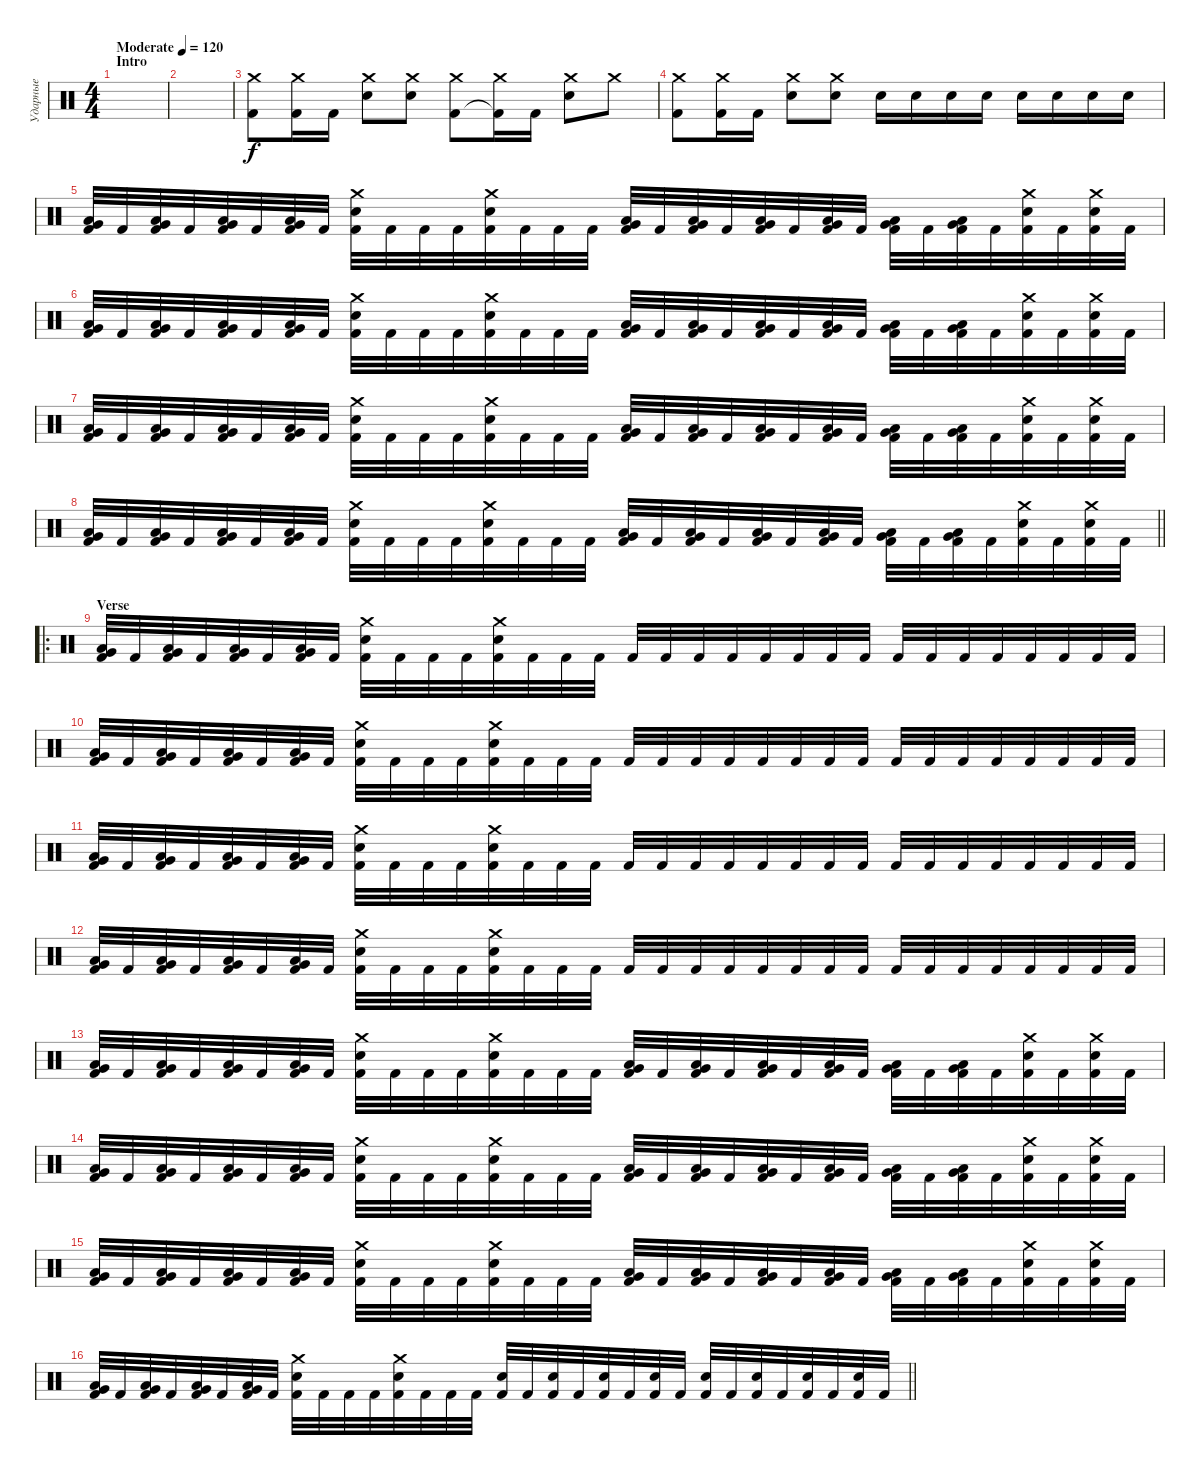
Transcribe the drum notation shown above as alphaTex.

\track ("Ударные" "Ударные") {instrument percussion}
\staff {score}
\articulation defaults
\ts (4 4)
\section ("" "Intro")
\tempo (120 "Moderate")
\clef neutral
\ks c
|
|
("Crash medium (hit)" "Kick (hit) 2").8 ("Crash medium (hit)" "Kick (hit) 2").16 "Kick (hit) 2".16 ("Crash medium (hit)" "Electric Snare (hit)").8 ("Crash medium (hit)" "Electric Snare (hit)").8 ("Crash medium (hit)" "Kick (hit) 2").8 ("Crash medium (hit)" "Kick (hit) 2"{t}).16 "Kick (hit) 2".16 ("Crash medium (hit)" "Electric Snare (hit)").8 "Crash medium (hit)".8 |
("Crash medium (hit)" "Kick (hit) 2").8 ("Crash medium (hit)" "Kick (hit) 2").16 "Kick (hit) 2".16 ("Crash medium (hit)" "Electric Snare (hit)").8 ("Crash medium (hit)" "Electric Snare (hit)").8 "Electric Snare (hit)".16 "Electric Snare (hit)".16 "Electric Snare (hit)".16 "Electric Snare (hit)".16 "Electric Snare (hit)".16 "Electric Snare (hit)".16 "Electric Snare (hit)".16 "Electric Snare (hit)".16 |
("Low Tom (hit)" "Very Low Tom (hit)" "Kick (hit) 2").32 "Kick (hit) 2".32 ("Low Tom (hit)" "Very Low Tom (hit)" "Kick (hit) 2").32 "Kick (hit) 2".32 ("Low Tom (hit)" "Very Low Tom (hit)" "Kick (hit) 2").32 "Kick (hit) 2".32 ("Low Tom (hit)" "Very Low Tom (hit)" "Kick (hit) 2").32 "Kick (hit) 2".32 ("Crash medium (hit)" "Electric Snare (hit)" "Kick (hit) 2").32 "Kick (hit) 2".32 "Kick (hit) 2".32 "Kick (hit) 2".32 ("Crash medium (hit)" "Electric Snare (hit)" "Kick (hit) 2").32 "Kick (hit) 2".32 "Kick (hit) 2".32 "Kick (hit) 2".32 ("Low Tom (hit)" "Very Low Tom (hit)" "Kick (hit) 2").32 "Kick (hit) 2".32 ("Low Tom (hit)" "Very Low Tom (hit)" "Kick (hit) 2").32 "Kick (hit) 2".32 ("Low Tom (hit)" "Very Low Tom (hit)" "Kick (hit) 2").32 "Kick (hit) 2".32 ("Low Tom (hit)" "Very Low Tom (hit)" "Kick (hit) 2").32 "Kick (hit) 2".32 ("Low Tom (hit)" "Very Low Tom (hit)" "Kick (hit) 2").32 "Kick (hit) 2".32 ("Low Tom (hit)" "Very Low Tom (hit)" "Kick (hit) 2").32 "Kick (hit) 2".32 ("Crash medium (hit)" "Electric Snare (hit)" "Kick (hit) 2").32 "Kick (hit) 2".32 ("Crash medium (hit)" "Electric Snare (hit)" "Kick (hit) 2").32 "Kick (hit) 2".32 |
("Low Tom (hit)" "Very Low Tom (hit)" "Kick (hit) 2").32 "Kick (hit) 2".32 ("Low Tom (hit)" "Very Low Tom (hit)" "Kick (hit) 2").32 "Kick (hit) 2".32 ("Low Tom (hit)" "Very Low Tom (hit)" "Kick (hit) 2").32 "Kick (hit) 2".32 ("Low Tom (hit)" "Very Low Tom (hit)" "Kick (hit) 2").32 "Kick (hit) 2".32 ("Crash medium (hit)" "Electric Snare (hit)" "Kick (hit) 2").32 "Kick (hit) 2".32 "Kick (hit) 2".32 "Kick (hit) 2".32 ("Crash medium (hit)" "Electric Snare (hit)" "Kick (hit) 2").32 "Kick (hit) 2".32 "Kick (hit) 2".32 "Kick (hit) 2".32 ("Low Tom (hit)" "Very Low Tom (hit)" "Kick (hit) 2").32 "Kick (hit) 2".32 ("Low Tom (hit)" "Very Low Tom (hit)" "Kick (hit) 2").32 "Kick (hit) 2".32 ("Low Tom (hit)" "Very Low Tom (hit)" "Kick (hit) 2").32 "Kick (hit) 2".32 ("Low Tom (hit)" "Very Low Tom (hit)" "Kick (hit) 2").32 "Kick (hit) 2".32 ("Low Tom (hit)" "Very Low Tom (hit)" "Kick (hit) 2").32 "Kick (hit) 2".32 ("Low Tom (hit)" "Very Low Tom (hit)" "Kick (hit) 2").32 "Kick (hit) 2".32 ("Crash medium (hit)" "Electric Snare (hit)" "Kick (hit) 2").32 "Kick (hit) 2".32 ("Crash medium (hit)" "Electric Snare (hit)" "Kick (hit) 2").32 "Kick (hit) 2".32 |
("Low Tom (hit)" "Very Low Tom (hit)" "Kick (hit) 2").32 "Kick (hit) 2".32 ("Low Tom (hit)" "Very Low Tom (hit)" "Kick (hit) 2").32 "Kick (hit) 2".32 ("Low Tom (hit)" "Very Low Tom (hit)" "Kick (hit) 2").32 "Kick (hit) 2".32 ("Low Tom (hit)" "Very Low Tom (hit)" "Kick (hit) 2").32 "Kick (hit) 2".32 ("Crash medium (hit)" "Electric Snare (hit)" "Kick (hit) 2").32 "Kick (hit) 2".32 "Kick (hit) 2".32 "Kick (hit) 2".32 ("Crash medium (hit)" "Electric Snare (hit)" "Kick (hit) 2").32 "Kick (hit) 2".32 "Kick (hit) 2".32 "Kick (hit) 2".32 ("Low Tom (hit)" "Very Low Tom (hit)" "Kick (hit) 2").32 "Kick (hit) 2".32 ("Low Tom (hit)" "Very Low Tom (hit)" "Kick (hit) 2").32 "Kick (hit) 2".32 ("Low Tom (hit)" "Very Low Tom (hit)" "Kick (hit) 2").32 "Kick (hit) 2".32 ("Low Tom (hit)" "Very Low Tom (hit)" "Kick (hit) 2").32 "Kick (hit) 2".32 ("Low Tom (hit)" "Very Low Tom (hit)" "Kick (hit) 2").32 "Kick (hit) 2".32 ("Low Tom (hit)" "Very Low Tom (hit)" "Kick (hit) 2").32 "Kick (hit) 2".32 ("Crash medium (hit)" "Electric Snare (hit)" "Kick (hit) 2").32 "Kick (hit) 2".32 ("Crash medium (hit)" "Electric Snare (hit)" "Kick (hit) 2").32 "Kick (hit) 2".32 |
\barLineRight lightlight
("Low Tom (hit)" "Very Low Tom (hit)" "Kick (hit) 2").32 "Kick (hit) 2".32 ("Low Tom (hit)" "Very Low Tom (hit)" "Kick (hit) 2").32 "Kick (hit) 2".32 ("Low Tom (hit)" "Very Low Tom (hit)" "Kick (hit) 2").32 "Kick (hit) 2".32 ("Low Tom (hit)" "Very Low Tom (hit)" "Kick (hit) 2").32 "Kick (hit) 2".32 ("Crash medium (hit)" "Electric Snare (hit)" "Kick (hit) 2").32 "Kick (hit) 2".32 "Kick (hit) 2".32 "Kick (hit) 2".32 ("Crash medium (hit)" "Electric Snare (hit)" "Kick (hit) 2").32 "Kick (hit) 2".32 "Kick (hit) 2".32 "Kick (hit) 2".32 ("Low Tom (hit)" "Very Low Tom (hit)" "Kick (hit) 2").32 "Kick (hit) 2".32 ("Low Tom (hit)" "Very Low Tom (hit)" "Kick (hit) 2").32 "Kick (hit) 2".32 ("Low Tom (hit)" "Very Low Tom (hit)" "Kick (hit) 2").32 "Kick (hit) 2".32 ("Low Tom (hit)" "Very Low Tom (hit)" "Kick (hit) 2").32 "Kick (hit) 2".32 ("Low Tom (hit)" "Very Low Tom (hit)" "Kick (hit) 2").32 "Kick (hit) 2".32 ("Low Tom (hit)" "Very Low Tom (hit)" "Kick (hit) 2").32 "Kick (hit) 2".32 ("Crash medium (hit)" "Electric Snare (hit)" "Kick (hit) 2").32 "Kick (hit) 2".32 ("Crash medium (hit)" "Electric Snare (hit)" "Kick (hit) 2").32 "Kick (hit) 2".32 |
\ro
\section ("" "Verse")
("Low Tom (hit)" "Very Low Tom (hit)" "Kick (hit) 2").32 "Kick (hit) 2".32 ("Low Tom (hit)" "Very Low Tom (hit)" "Kick (hit) 2").32 "Kick (hit) 2".32 ("Low Tom (hit)" "Very Low Tom (hit)" "Kick (hit) 2").32 "Kick (hit) 2".32 ("Low Tom (hit)" "Very Low Tom (hit)" "Kick (hit) 2").32 "Kick (hit) 2".32 ("Crash medium (hit)" "Electric Snare (hit)" "Kick (hit) 2").32 "Kick (hit) 2".32 "Kick (hit) 2".32 "Kick (hit) 2".32 ("Crash medium (hit)" "Electric Snare (hit)" "Kick (hit) 2").32 "Kick (hit) 2".32 "Kick (hit) 2".32 "Kick (hit) 2".32 "Kick (hit) 2".32 "Kick (hit) 2".32 "Kick (hit) 2".32 "Kick (hit) 2".32 "Kick (hit) 2".32 "Kick (hit) 2".32 "Kick (hit) 2".32 "Kick (hit) 2".32 "Kick (hit) 2".32 "Kick (hit) 2".32 "Kick (hit) 2".32 "Kick (hit) 2".32 "Kick (hit) 2".32 "Kick (hit) 2".32 "Kick (hit) 2".32 "Kick (hit) 2".32 |
("Low Tom (hit)" "Very Low Tom (hit)" "Kick (hit) 2").32 "Kick (hit) 2".32 ("Low Tom (hit)" "Very Low Tom (hit)" "Kick (hit) 2").32 "Kick (hit) 2".32 ("Low Tom (hit)" "Very Low Tom (hit)" "Kick (hit) 2").32 "Kick (hit) 2".32 ("Low Tom (hit)" "Very Low Tom (hit)" "Kick (hit) 2").32 "Kick (hit) 2".32 ("Crash medium (hit)" "Electric Snare (hit)" "Kick (hit) 2").32 "Kick (hit) 2".32 "Kick (hit) 2".32 "Kick (hit) 2".32 ("Crash medium (hit)" "Electric Snare (hit)" "Kick (hit) 2").32 "Kick (hit) 2".32 "Kick (hit) 2".32 "Kick (hit) 2".32 "Kick (hit) 2".32 "Kick (hit) 2".32 "Kick (hit) 2".32 "Kick (hit) 2".32 "Kick (hit) 2".32 "Kick (hit) 2".32 "Kick (hit) 2".32 "Kick (hit) 2".32 "Kick (hit) 2".32 "Kick (hit) 2".32 "Kick (hit) 2".32 "Kick (hit) 2".32 "Kick (hit) 2".32 "Kick (hit) 2".32 "Kick (hit) 2".32 "Kick (hit) 2".32 |
("Low Tom (hit)" "Very Low Tom (hit)" "Kick (hit) 2").32 "Kick (hit) 2".32 ("Low Tom (hit)" "Very Low Tom (hit)" "Kick (hit) 2").32 "Kick (hit) 2".32 ("Low Tom (hit)" "Very Low Tom (hit)" "Kick (hit) 2").32 "Kick (hit) 2".32 ("Low Tom (hit)" "Very Low Tom (hit)" "Kick (hit) 2").32 "Kick (hit) 2".32 ("Crash medium (hit)" "Electric Snare (hit)" "Kick (hit) 2").32 "Kick (hit) 2".32 "Kick (hit) 2".32 "Kick (hit) 2".32 ("Crash medium (hit)" "Electric Snare (hit)" "Kick (hit) 2").32 "Kick (hit) 2".32 "Kick (hit) 2".32 "Kick (hit) 2".32 "Kick (hit) 2".32 "Kick (hit) 2".32 "Kick (hit) 2".32 "Kick (hit) 2".32 "Kick (hit) 2".32 "Kick (hit) 2".32 "Kick (hit) 2".32 "Kick (hit) 2".32 "Kick (hit) 2".32 "Kick (hit) 2".32 "Kick (hit) 2".32 "Kick (hit) 2".32 "Kick (hit) 2".32 "Kick (hit) 2".32 "Kick (hit) 2".32 "Kick (hit) 2".32 |
("Low Tom (hit)" "Very Low Tom (hit)" "Kick (hit) 2").32 "Kick (hit) 2".32 ("Low Tom (hit)" "Very Low Tom (hit)" "Kick (hit) 2").32 "Kick (hit) 2".32 ("Low Tom (hit)" "Very Low Tom (hit)" "Kick (hit) 2").32 "Kick (hit) 2".32 ("Low Tom (hit)" "Very Low Tom (hit)" "Kick (hit) 2").32 "Kick (hit) 2".32 ("Crash medium (hit)" "Electric Snare (hit)" "Kick (hit) 2").32 "Kick (hit) 2".32 "Kick (hit) 2".32 "Kick (hit) 2".32 ("Crash medium (hit)" "Electric Snare (hit)" "Kick (hit) 2").32 "Kick (hit) 2".32 "Kick (hit) 2".32 "Kick (hit) 2".32 "Kick (hit) 2".32 "Kick (hit) 2".32 "Kick (hit) 2".32 "Kick (hit) 2".32 "Kick (hit) 2".32 "Kick (hit) 2".32 "Kick (hit) 2".32 "Kick (hit) 2".32 "Kick (hit) 2".32 "Kick (hit) 2".32 "Kick (hit) 2".32 "Kick (hit) 2".32 "Kick (hit) 2".32 "Kick (hit) 2".32 "Kick (hit) 2".32 "Kick (hit) 2".32 |
("Low Tom (hit)" "Very Low Tom (hit)" "Kick (hit) 2").32 "Kick (hit) 2".32 ("Low Tom (hit)" "Very Low Tom (hit)" "Kick (hit) 2").32 "Kick (hit) 2".32 ("Low Tom (hit)" "Very Low Tom (hit)" "Kick (hit) 2").32 "Kick (hit) 2".32 ("Low Tom (hit)" "Very Low Tom (hit)" "Kick (hit) 2").32 "Kick (hit) 2".32 ("Crash medium (hit)" "Electric Snare (hit)" "Kick (hit) 2").32 "Kick (hit) 2".32 "Kick (hit) 2".32 "Kick (hit) 2".32 ("Crash medium (hit)" "Electric Snare (hit)" "Kick (hit) 2").32 "Kick (hit) 2".32 "Kick (hit) 2".32 "Kick (hit) 2".32 ("Low Tom (hit)" "Very Low Tom (hit)" "Kick (hit) 2").32 "Kick (hit) 2".32 ("Low Tom (hit)" "Very Low Tom (hit)" "Kick (hit) 2").32 "Kick (hit) 2".32 ("Low Tom (hit)" "Very Low Tom (hit)" "Kick (hit) 2").32 "Kick (hit) 2".32 ("Low Tom (hit)" "Very Low Tom (hit)" "Kick (hit) 2").32 "Kick (hit) 2".32 ("Low Tom (hit)" "Very Low Tom (hit)" "Kick (hit) 2").32 "Kick (hit) 2".32 ("Low Tom (hit)" "Very Low Tom (hit)" "Kick (hit) 2").32 "Kick (hit) 2".32 ("Crash medium (hit)" "Electric Snare (hit)" "Kick (hit) 2").32 "Kick (hit) 2".32 ("Crash medium (hit)" "Electric Snare (hit)" "Kick (hit) 2").32 "Kick (hit) 2".32 |
("Low Tom (hit)" "Very Low Tom (hit)" "Kick (hit) 2").32 "Kick (hit) 2".32 ("Low Tom (hit)" "Very Low Tom (hit)" "Kick (hit) 2").32 "Kick (hit) 2".32 ("Low Tom (hit)" "Very Low Tom (hit)" "Kick (hit) 2").32 "Kick (hit) 2".32 ("Low Tom (hit)" "Very Low Tom (hit)" "Kick (hit) 2").32 "Kick (hit) 2".32 ("Crash medium (hit)" "Electric Snare (hit)" "Kick (hit) 2").32 "Kick (hit) 2".32 "Kick (hit) 2".32 "Kick (hit) 2".32 ("Crash medium (hit)" "Electric Snare (hit)" "Kick (hit) 2").32 "Kick (hit) 2".32 "Kick (hit) 2".32 "Kick (hit) 2".32 ("Low Tom (hit)" "Very Low Tom (hit)" "Kick (hit) 2").32 "Kick (hit) 2".32 ("Low Tom (hit)" "Very Low Tom (hit)" "Kick (hit) 2").32 "Kick (hit) 2".32 ("Low Tom (hit)" "Very Low Tom (hit)" "Kick (hit) 2").32 "Kick (hit) 2".32 ("Low Tom (hit)" "Very Low Tom (hit)" "Kick (hit) 2").32 "Kick (hit) 2".32 ("Low Tom (hit)" "Very Low Tom (hit)" "Kick (hit) 2").32 "Kick (hit) 2".32 ("Low Tom (hit)" "Very Low Tom (hit)" "Kick (hit) 2").32 "Kick (hit) 2".32 ("Crash medium (hit)" "Electric Snare (hit)" "Kick (hit) 2").32 "Kick (hit) 2".32 ("Crash medium (hit)" "Electric Snare (hit)" "Kick (hit) 2").32 "Kick (hit) 2".32 |
("Low Tom (hit)" "Very Low Tom (hit)" "Kick (hit) 2").32 "Kick (hit) 2".32 ("Low Tom (hit)" "Very Low Tom (hit)" "Kick (hit) 2").32 "Kick (hit) 2".32 ("Low Tom (hit)" "Very Low Tom (hit)" "Kick (hit) 2").32 "Kick (hit) 2".32 ("Low Tom (hit)" "Very Low Tom (hit)" "Kick (hit) 2").32 "Kick (hit) 2".32 ("Crash medium (hit)" "Electric Snare (hit)" "Kick (hit) 2").32 "Kick (hit) 2".32 "Kick (hit) 2".32 "Kick (hit) 2".32 ("Crash medium (hit)" "Electric Snare (hit)" "Kick (hit) 2").32 "Kick (hit) 2".32 "Kick (hit) 2".32 "Kick (hit) 2".32 ("Low Tom (hit)" "Very Low Tom (hit)" "Kick (hit) 2").32 "Kick (hit) 2".32 ("Low Tom (hit)" "Very Low Tom (hit)" "Kick (hit) 2").32 "Kick (hit) 2".32 ("Low Tom (hit)" "Very Low Tom (hit)" "Kick (hit) 2").32 "Kick (hit) 2".32 ("Low Tom (hit)" "Very Low Tom (hit)" "Kick (hit) 2").32 "Kick (hit) 2".32 ("Low Tom (hit)" "Very Low Tom (hit)" "Kick (hit) 2").32 "Kick (hit) 2".32 ("Low Tom (hit)" "Very Low Tom (hit)" "Kick (hit) 2").32 "Kick (hit) 2".32 ("Crash medium (hit)" "Electric Snare (hit)" "Kick (hit) 2").32 "Kick (hit) 2".32 ("Crash medium (hit)" "Electric Snare (hit)" "Kick (hit) 2").32 "Kick (hit) 2".32 |
\barLineRight lightlight
("Low Tom (hit)" "Very Low Tom (hit)" "Kick (hit) 2").32 "Kick (hit) 2".32 ("Low Tom (hit)" "Very Low Tom (hit)" "Kick (hit) 2").32 "Kick (hit) 2".32 ("Low Tom (hit)" "Very Low Tom (hit)" "Kick (hit) 2").32 "Kick (hit) 2".32 ("Low Tom (hit)" "Very Low Tom (hit)" "Kick (hit) 2").32 "Kick (hit) 2".32 ("Crash medium (hit)" "Electric Snare (hit)" "Kick (hit) 2").32 "Kick (hit) 2".32 "Kick (hit) 2".32 "Kick (hit) 2".32 ("Crash medium (hit)" "Electric Snare (hit)" "Kick (hit) 2").32 "Kick (hit) 2".32 "Kick (hit) 2".32 "Kick (hit) 2".32 ("Electric Snare (hit)" "Kick (hit) 2").32 "Kick (hit) 2".32 ("Electric Snare (hit)" "Kick (hit) 2").32 "Kick (hit) 2".32 ("Electric Snare (hit)" "Kick (hit) 2").32 "Kick (hit) 2".32 ("Electric Snare (hit)" "Kick (hit) 2").32 "Kick (hit) 2".32 ("Electric Snare (hit)" "Kick (hit) 2").32 "Kick (hit) 2".32 ("Electric Snare (hit)" "Kick (hit) 2").32 "Kick (hit) 2".32 ("Electric Snare (hit)" "Kick (hit) 2").32 "Kick (hit) 2".32 ("Electric Snare (hit)" "Kick (hit) 2").32 "Kick (hit) 2".32
